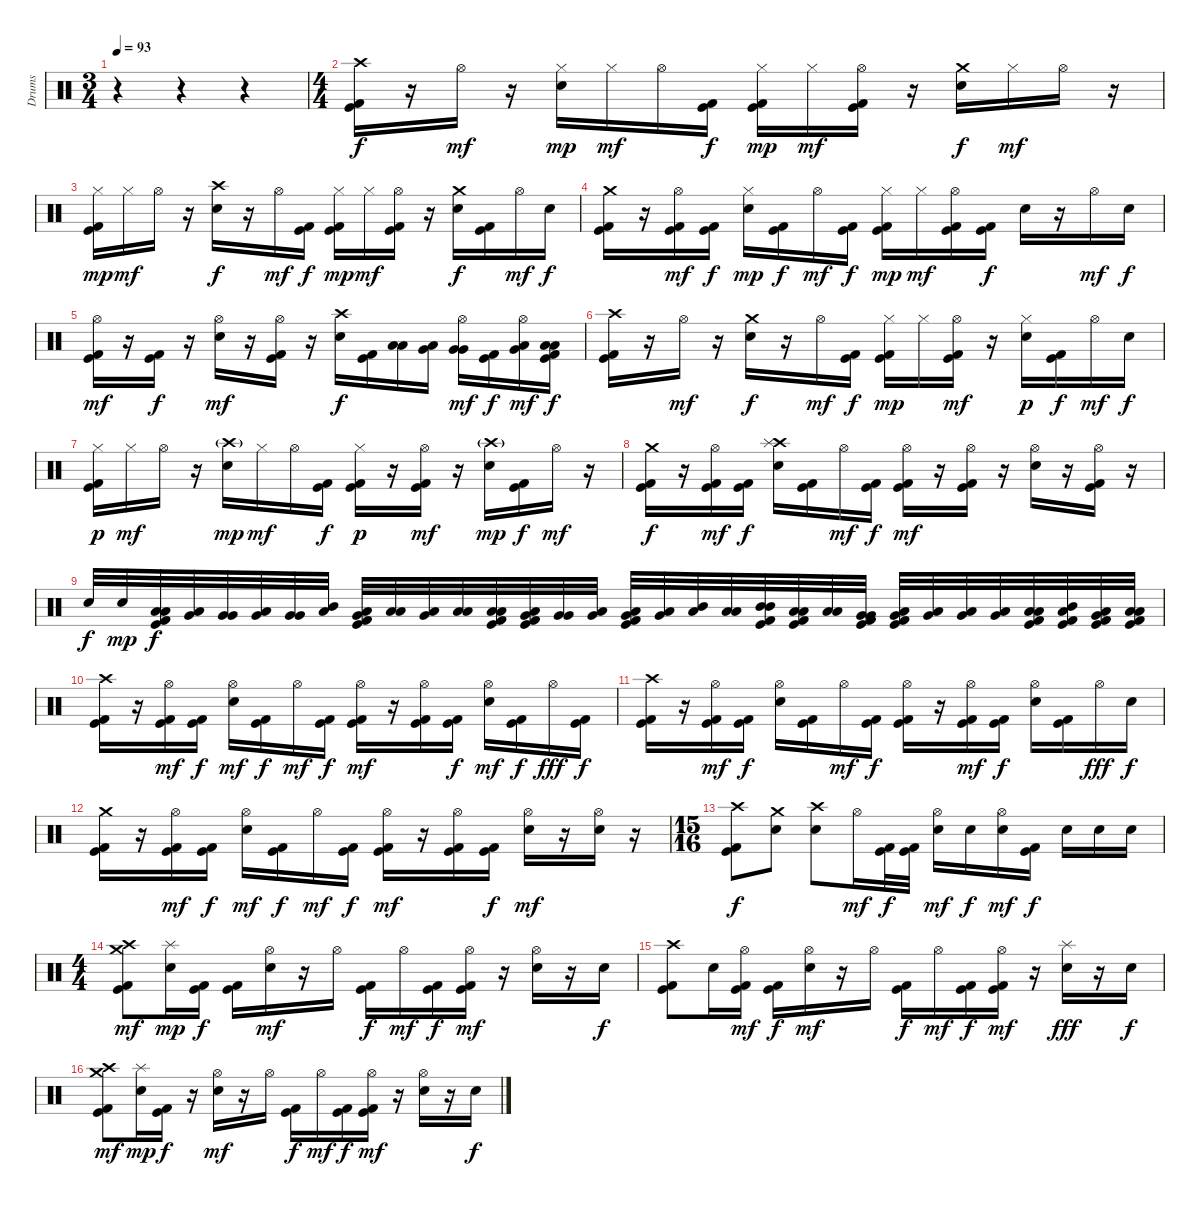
\track ("Drums" "Drums") {instrument percussion}
\staff {score}
\articulation defaults
\ts (3 4)
\tempo 93
\clef neutral
\ks c
r.4{dy pp} r.4 r.4 |
\ts (4 4)
("Crash high (hit)" "Kick (hit)" "Kick (hit) 2").16{dy f} r.16 "Hi-Hat (open)".16{dy mf} r.16 ("Hi-Hat (closed)" "Electric Snare (hit)").16{dy mp} "Hi-Hat (closed)".16{dy mf} "Hi-Hat (open)".16 ("Kick (hit)" "Kick (hit) 2").16{dy f} ("Hi-Hat (closed)" "Kick (hit)" "Kick (hit) 2").16{dy mp} "Hi-Hat (closed)".16{dy mf} ("Hi-Hat (open)" "Kick (hit)" "Kick (hit) 2").16 r.16 ("Crash medium (hit)" "Electric Snare (hit)").16{dy f} "Hi-Hat (closed)".16{dy mf} "Hi-Hat (open)".16 r.16 |
("Hi-Hat (closed)" "Kick (hit)" "Kick (hit) 2").16{dy mp} "Hi-Hat (closed)".16{dy mf} "Hi-Hat (open)".16 r.16 ("Crash high (hit)" "Electric Snare (hit)").16{dy f} r.16 "Hi-Hat (open)".16{dy mf} ("Kick (hit)" "Kick (hit) 2").16{dy f} ("Hi-Hat (closed)" "Kick (hit)" "Kick (hit) 2").16{dy mp} "Hi-Hat (closed)".16{dy mf} ("Hi-Hat (open)" "Kick (hit)" "Kick (hit) 2").16 r.16 ("Crash medium (hit)" "Electric Snare (hit)").16{dy f} ("Kick (hit)" "Kick (hit) 2").16 "Hi-Hat (open)".16{dy mf} "Electric Snare (hit)".16{dy f} |
("Crash medium (hit)" "Kick (hit)" "Kick (hit) 2").16 r.16 ("Hi-Hat (open)" "Kick (hit)" "Kick (hit) 2").16{dy mf} ("Kick (hit)" "Kick (hit) 2").16{dy f} ("Hi-Hat (closed)" "Electric Snare (hit)").16{dy mp} ("Kick (hit)" "Kick (hit) 2").16{dy f} "Hi-Hat (open)".16{dy mf} ("Kick (hit)" "Kick (hit) 2").16{dy f} ("Hi-Hat (closed)" "Kick (hit)" "Kick (hit) 2").16{dy mp} "Hi-Hat (closed)".16{dy mf} ("Hi-Hat (open)" "Kick (hit)" "Kick (hit) 2").16 ("Kick (hit)" "Kick (hit) 2").16{dy f} "Electric Snare (hit)".16 r.16 "Hi-Hat (open)".16{dy mf} "Electric Snare (hit)".16{dy f} |
("Hi-Hat (open)" "Kick (hit)" "Kick (hit) 2").16{dy mf} r.16 ("Kick (hit)" "Kick (hit) 2").16{dy f} r.16 ("Hi-Hat (open)" "Electric Snare (hit)").16{dy mf} r.16 ("Hi-Hat (open)" "Kick (hit)" "Kick (hit) 2").16 r.16 ("Crash high (hit)" "Electric Snare (hit)").16{dy f} ("Kick (hit)" "Kick (hit) 2").16 ("Low Tom (hit)" "Low Tom (hit)").16 ("Low Tom (hit)" "Very Low Tom (hit)").16 ("Hi-Hat (open)" "Very Low Tom (hit)" "Very Low Tom (hit)").16{dy mf} ("Kick (hit)" "Kick (hit) 2").16{dy f} ("Hi-Hat (open)" "Very Low Tom (hit)" "Low Floor Tom (hit)").16{dy mf} ("Low Floor Tom (hit)" "Low Floor Tom (hit)" "Kick (hit)" "Kick (hit) 2").16{dy f} |
("Crash high (hit)" "Kick (hit)" "Kick (hit) 2").16 r.16 "Hi-Hat (open)".16{dy mf} r.16 ("Crash medium (hit)" "Electric Snare (hit)").16{dy f} r.16 "Hi-Hat (open)".16{dy mf} ("Kick (hit)" "Kick (hit) 2").16{dy f} ("Hi-Hat (closed)" "Kick (hit)" "Kick (hit) 2").16{dy mp} "Hi-Hat (closed)".16 ("Hi-Hat (open)" "Kick (hit)" "Kick (hit) 2").16{dy mf} r.16 ("Hi-Hat (closed)" "Electric Snare (hit)").16{dy p} ("Kick (hit)" "Kick (hit) 2").16{dy f} "Hi-Hat (open)".16{dy mf} "Electric Snare (hit)".16{dy f} |
("Hi-Hat (closed)" "Kick (hit)" "Kick (hit) 2").16{dy p} "Hi-Hat (closed)".16{dy mf} "Hi-Hat (open)".16 r.16 ("Crash high (hit)"{g} "Electric Snare (hit)").16{dy mp} "Hi-Hat (closed)".16{dy mf} "Hi-Hat (open)".16 ("Kick (hit)" "Kick (hit) 2").16{dy f} ("Hi-Hat (closed)" "Kick (hit)" "Kick (hit) 2").16{dy p} r.16 ("Hi-Hat (open)" "Kick (hit)" "Kick (hit) 2").16{dy mf} r.16 ("Crash high (hit)"{g} "Electric Snare (hit)").16{dy mp} ("Kick (hit)" "Kick (hit) 2").16{dy f} "Hi-Hat (open)".16{dy mf} r.16 |
("Crash medium (hit)" "Kick (hit)" "Kick (hit) 2").16{dy f} r.16 ("Hi-Hat (open)" "Kick (hit)" "Kick (hit) 2").16{dy mf} ("Kick (hit)" "Kick (hit) 2").16{dy f} ("Crash high (hit)" "Splash (hit)" "Electric Snare (hit)").16 ("Kick (hit)" "Kick (hit) 2").16 "Hi-Hat (open)".16{dy mf} ("Kick (hit)" "Kick (hit) 2").16{dy f} ("Hi-Hat (open)" "Kick (hit)" "Kick (hit) 2").16{dy mf} r.16 ("Hi-Hat (open)" "Kick (hit)" "Kick (hit) 2").16 r.16 ("Hi-Hat (open)" "Electric Snare (hit)").16 r.16 ("Hi-Hat (open)" "Kick (hit)" "Kick (hit) 2").16 r.16 |
"Electric Snare (hit)".32{dy f} "Electric Snare (hit)".32{dy mp} ("Low Tom (hit)" "Low Tom (hit)" "Kick (hit)" "Kick (hit) 2").32{dy f} ("Very Low Tom (hit)" "Low Tom (hit)").32 ("Very Low Tom (hit)" "Very Low Tom (hit)").32 ("Low Tom (hit)" "Very Low Tom (hit)").32 ("Very Low Tom (hit)" "Very Low Tom (hit)").32 ("Mid Tom (hit)" "Low Tom (hit)").32 ("Very Low Tom (hit)" "Low Floor Tom (hit)" "Kick (hit)" "Kick (hit) 2").32 ("Low Floor Tom (hit)" "Low Floor Tom (hit)").32 ("Low Tom (hit)" "Very Low Tom (hit)").32 ("Low Tom (hit)" "Low Tom (hit)").32 ("Low Tom (hit)" "Low Tom (hit)" "Kick (hit)" "Kick (hit) 2").32 ("Very Low Tom (hit)" "Low Floor Tom (hit)" "Kick (hit)" "Kick (hit) 2").32 ("Very Low Tom (hit)" "Very Low Tom (hit)").32 ("Low Tom (hit)" "Very Low Tom (hit)").32 ("Very Low Tom (hit)" "Low Tom (hit)" "Kick (hit)" "Kick (hit) 2").32 ("Low Floor Tom (hit)" "Very Low Tom (hit)").32 ("Mid Tom (hit)" "Low Tom (hit)").32 ("Low Tom (hit)" "Low Tom (hit)").32 ("Mid Tom (hit)" "Mid Tom (hit)" "Kick (hit)" "Kick (hit) 2").32 ("Low Tom (hit)" "Low Tom (hit)" "Kick (hit)" "Kick (hit) 2").32 ("Low Tom (hit)" "Low Tom (hit)").32 ("Very Low Tom (hit)" "Very Low Tom (hit)" "Kick (hit)" "Kick (hit) 2").32 ("Very Low Tom (hit)" "Low Floor Tom (hit)" "Kick (hit)" "Kick (hit) 2").32 ("Low Floor Tom (hit)" "Very Low Tom (hit)").32 ("Very Low Tom (hit)" "Low Floor Tom (hit)").32 ("Low Tom (hit)" "Very Low Tom (hit)").32 ("Low Floor Tom (hit)" "Low Floor Tom (hit)" "Kick (hit)" "Kick (hit) 2").32 ("Mid Tom (hit)" "Low Tom (hit)" "Kick (hit)" "Kick (hit) 2").32 ("Low Floor Tom (hit)" "Very Low Tom (hit)" "Kick (hit)" "Kick (hit) 2").32 ("Low Tom (hit)" "Low Tom (hit)" "Kick (hit)" "Kick (hit) 2").32 |
("Crash high (hit)" "Kick (hit)" "Kick (hit) 2").16 r.16 ("Hi-Hat (open)" "Kick (hit)" "Kick (hit) 2").16{dy mf} ("Kick (hit)" "Kick (hit) 2").16{dy f} ("Hi-Hat (open)" "Electric Snare (hit)").16{dy mf} ("Kick (hit)" "Kick (hit) 2").16{dy f} "Hi-Hat (open)".16{dy mf} ("Kick (hit)" "Kick (hit) 2").16{dy f} ("Hi-Hat (open)" "Kick (hit)" "Kick (hit) 2").16{dy mf} r.16 ("Hi-Hat (open)" "Kick (hit)" "Kick (hit) 2").16 ("Kick (hit)" "Kick (hit) 2").16{dy f} ("Hi-Hat (open)" "Electric Snare (hit)").16{dy mf} ("Kick (hit)" "Kick (hit) 2").16{dy f} "Hi-Hat (open)".16{dy fff} ("Kick (hit)" "Kick (hit) 2").16{dy f} |
("Crash high (hit)" "Kick (hit)" "Kick (hit) 2").16 r.16 ("Hi-Hat (open)" "Kick (hit)" "Kick (hit) 2").16{dy mf} ("Kick (hit)" "Kick (hit) 2").16{dy f} ("Hi-Hat (open)" "Electric Snare (hit)").16 ("Kick (hit)" "Kick (hit) 2").16 "Hi-Hat (open)".16{dy mf} ("Kick (hit)" "Kick (hit) 2").16{dy f} ("Hi-Hat (open)" "Kick (hit)" "Kick (hit) 2").16 r.16 ("Hi-Hat (open)" "Kick (hit)" "Kick (hit) 2").16{dy mf} ("Kick (hit)" "Kick (hit) 2").16{dy f} ("Hi-Hat (open)" "Electric Snare (hit)").16 ("Kick (hit)" "Kick (hit) 2").16 "Hi-Hat (open)".16{dy fff} "Electric Snare (hit)".16{dy f} |
("Crash medium (hit)" "Kick (hit)" "Kick (hit) 2").16 r.16 ("Hi-Hat (open)" "Kick (hit)" "Kick (hit) 2").16{dy mf} ("Kick (hit)" "Kick (hit) 2").16{dy f} ("Hi-Hat (open)" "Electric Snare (hit)").16{dy mf} ("Kick (hit)" "Kick (hit) 2").16{dy f} "Hi-Hat (open)".16{dy mf} ("Kick (hit)" "Kick (hit) 2").16{dy f} ("Hi-Hat (open)" "Kick (hit)" "Kick (hit) 2").16{dy mf} r.16 ("Hi-Hat (open)" "Kick (hit)" "Kick (hit) 2").16 ("Kick (hit)" "Kick (hit) 2").16{dy f} ("Hi-Hat (open)" "Electric Snare (hit)").16{dy mf} r.16 ("Hi-Hat (open)" "Electric Snare (hit)").16 r.16 |
\ts (15 16)
("Crash high (hit)" "Kick (hit)" "Kick (hit) 2").8{dy f} ("Crash medium (hit)" "Electric Snare (hit)").8 ("Crash high (hit)" "Electric Snare (hit)").8 "Hi-Hat (open)".16{dy mf} ("Kick (hit)" "Kick (hit) 2").32{dy f} ("Kick (hit)" "Kick (hit) 2").32 ("Hi-Hat (open)" "Electric Snare (hit)").16{dy mf} "Electric Snare (hit)".16{dy f} ("Hi-Hat (open)" "Electric Snare (hit)").16{dy mf} ("Kick (hit)" "Kick (hit) 2").16{dy f} "Electric Snare (hit)".16 "Electric Snare (hit)".16 "Electric Snare (hit)".16 |
\ts (4 4)
("Crash high (hit)" "Crash medium (hit)" "Kick (hit)" "Kick (hit) 2").8{dy mf} ("Splash (hit)" "Electric Snare (hit)").16{dy mp} ("Kick (hit)" "Kick (hit) 2").16{dy f} ("Kick (hit)" "Kick (hit) 2").16 ("Hi-Hat (open)" "Electric Snare (hit)").16{dy mf} r.16 "Hi-Hat (open)".16 ("Kick (hit)" "Kick (hit) 2").16{dy f} "Hi-Hat (open)".16{dy mf} ("Kick (hit)" "Kick (hit) 2").16{dy f} ("Hi-Hat (open)" "Kick (hit)" "Kick (hit) 2").16{dy mf} r.16 ("Hi-Hat (open)" "Electric Snare (hit)").16 r.16 "Electric Snare (hit)".16{dy f} |
("Crash high (hit)" "Kick (hit)" "Kick (hit) 2").8 "Electric Snare (hit)".16 ("Hi-Hat (open)" "Kick (hit)" "Kick (hit) 2").16{dy mf} ("Kick (hit)" "Kick (hit) 2").16{dy f} ("Hi-Hat (open)" "Electric Snare (hit)").16{dy mf} r.16 "Hi-Hat (open)".16 ("Kick (hit)" "Kick (hit) 2").16{dy f} "Hi-Hat (open)".16{dy mf} ("Kick (hit)" "Kick (hit) 2").16{dy f} ("Hi-Hat (open)" "Kick (hit)" "Kick (hit) 2").16{dy mf} r.16 ("Splash (hit)" "Electric Snare (hit)").16{dy fff} r.16 "Electric Snare (hit)".16{dy f} |
("Crash high (hit)" "Crash medium (hit)" "Kick (hit)" "Kick (hit) 2").8{dy mf} ("Splash (hit)" "Electric Snare (hit)").16{dy mp} ("Kick (hit)" "Kick (hit) 2").16{dy f} r.16 ("Hi-Hat (open)" "Electric Snare (hit)").16{dy mf} r.16 "Hi-Hat (open)".16 ("Kick (hit)" "Kick (hit) 2").16{dy f} "Hi-Hat (open)".16{dy mf} ("Kick (hit)" "Kick (hit) 2").16{dy f} ("Hi-Hat (open)" "Kick (hit)" "Kick (hit) 2").16{dy mf} r.16 ("Hi-Hat (open)" "Electric Snare (hit)").16 r.16 "Electric Snare (hit)".16{dy f}
